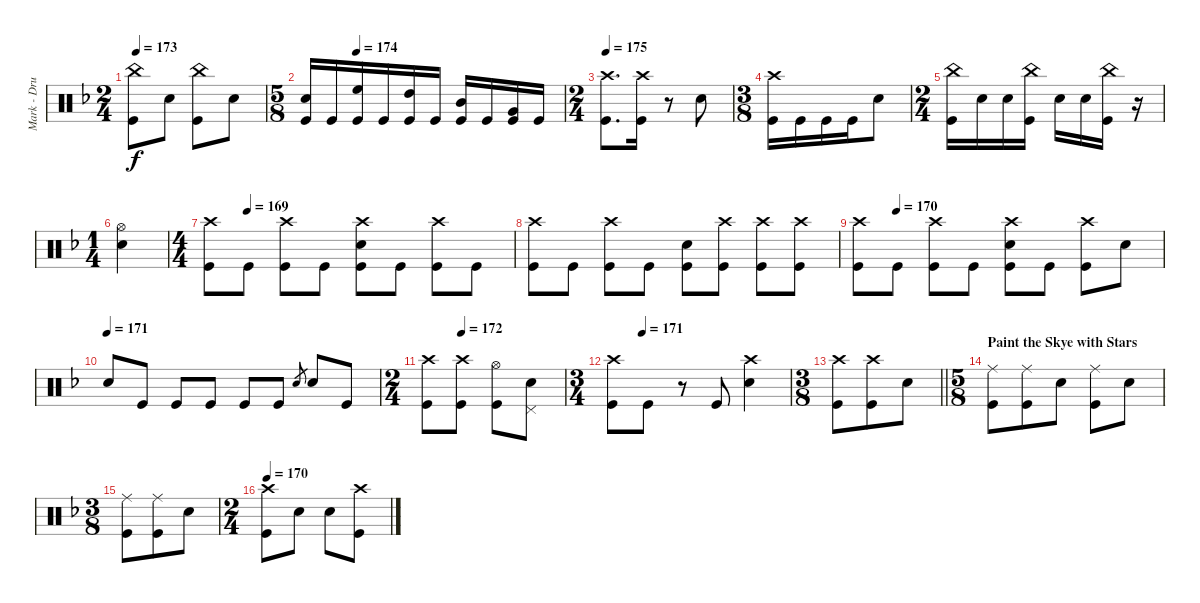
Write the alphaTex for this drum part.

\track ("Mark - Drums" "Mark - Dru") {instrument percussion}
\staff {score}
\articulation defaults
\ts (2 4)
\tempo 173
\clef neutral
\ks dminor
("China (hit)" "Kick (hit)").8{dy f} "Snare (hit) 2".8 ("Kick (hit)" "China (hit)").8 "Snare (hit) 2".8 |
\ts (5 8)
\tempo (174 0.2)
("Kick (hit)" "Snare (hit) 2").16 "Kick (hit)".16 ("Kick (hit)" "High Floor Tom (hit)").16 "Kick (hit)".16 ("High Tom (hit)" "Kick (hit)").16 "Kick (hit)".16 ("Kick (hit)" "Mid Tom (hit)").16 "Kick (hit)".16 ("Kick (hit)" "Very Low Tom (hit)").16 "Kick (hit)".16 |
\ts (2 4)
\tempo 175
("Kick (hit)" "Crash high (hit)").8{d} ("Kick (hit)" "Crash high (hit)").16 r.8 "Snare (hit) 2".8 |
\ts (3 8)
("Kick (hit)" "Crash high (hit)").16 "Kick (hit)".16 "Kick (hit)".16 "Kick (hit)".16 "Snare (hit) 2".8 |
\ts (2 4)
("Kick (hit)" "China (hit)").16 "Snare (hit) 2".16 "Snare (hit) 2".16 ("Kick (hit)" "China (hit)").16 "Snare (hit) 2".16 "Snare (hit) 2".16 ("Kick (hit)" "China (hit)").16 r.16 |
\ts (1 4)
("Snare (hit) 2" "Hi-Hat (open)").4 |
\ts (4 4)
\tempo (169 0.125)
("Kick (hit)" "Crash high (hit)").8 "Kick (hit)".8 ("Kick (hit)" "Crash high (hit)").8 "Kick (hit)".8 ("Kick (hit)" "Crash high (hit)" "Snare (hit) 2").8 "Kick (hit)".8 ("Kick (hit)" "Crash high (hit)").8 "Kick (hit)".8 |
("Kick (hit)" "Crash high (hit)").8 "Kick (hit)".8 ("Kick (hit)" "Crash high (hit)").8 "Kick (hit)".8 ("Kick (hit)" "Snare (hit) 2").8 ("Kick (hit)" "Crash high (hit)").8 ("Kick (hit)" "Crash high (hit)").8 ("Kick (hit)" "Crash high (hit)").8 |
\tempo (170 0.125)
("Kick (hit)" "Crash high (hit)").8 "Kick (hit)".8 ("Kick (hit)" "Crash high (hit)").8 "Kick (hit)".8 ("Crash high (hit)" "Kick (hit)" "Snare (hit) 2").8 "Kick (hit)".8 ("Kick (hit)" "Crash high (hit)").8 "Snare (hit) 2".8 |
\tempo (171)
"Snare (hit) 2".8 "Kick (hit)".8 "Kick (hit)".8 "Kick (hit)".8 "Kick (hit)".8 "Kick (hit)".8 "Snare (hit) 2".8{gr} "Snare (hit) 2".8 "Kick (hit)".8 |
\ts (2 4)
\tempo (172 0.25)
("Kick (hit)" "Crash high (hit)").8 ("Kick (hit)" "Crash high (hit)").8 ("Kick (hit)" "Hi-Hat (open)").8 ("Snare (hit) 2" "Pedal Hi-Hat (hit)").8 |
\ts (3 4)
\tempo (171 0.16666666666666666)
("Kick (hit)" "Crash high (hit)").8 "Kick (hit)".8 r.8 "Kick (hit)".8 ("Snare (hit) 2" "Crash high (hit)").4 |
\ts (3 8)
\barLineRight lightlight
("Kick (hit)" "Crash high (hit)").8 ("Kick (hit)" "Crash high (hit)").8 "Snare (hit) 2".8 |
\ts (5 8)
\section ("" "Paint the Skye with Stars")
("Kick (hit)" "Ride (middle)").8 ("Kick (hit)" "Ride (middle)").8 "Snare (hit) 2".8 ("Kick (hit)" "Ride (middle)").8 "Snare (hit) 2".8 |
\ts (3 8)
("Kick (hit)" "Ride (middle)").8 ("Ride (middle)" "Kick (hit)").8 "Snare (hit) 2".8 |
\ts (2 4)
\tempo 170
("Kick (hit)" "Crash high (hit)").8 "Snare (hit) 2".8 "Snare (hit) 2".8 ("Kick (hit)" "Crash high (hit)").8
